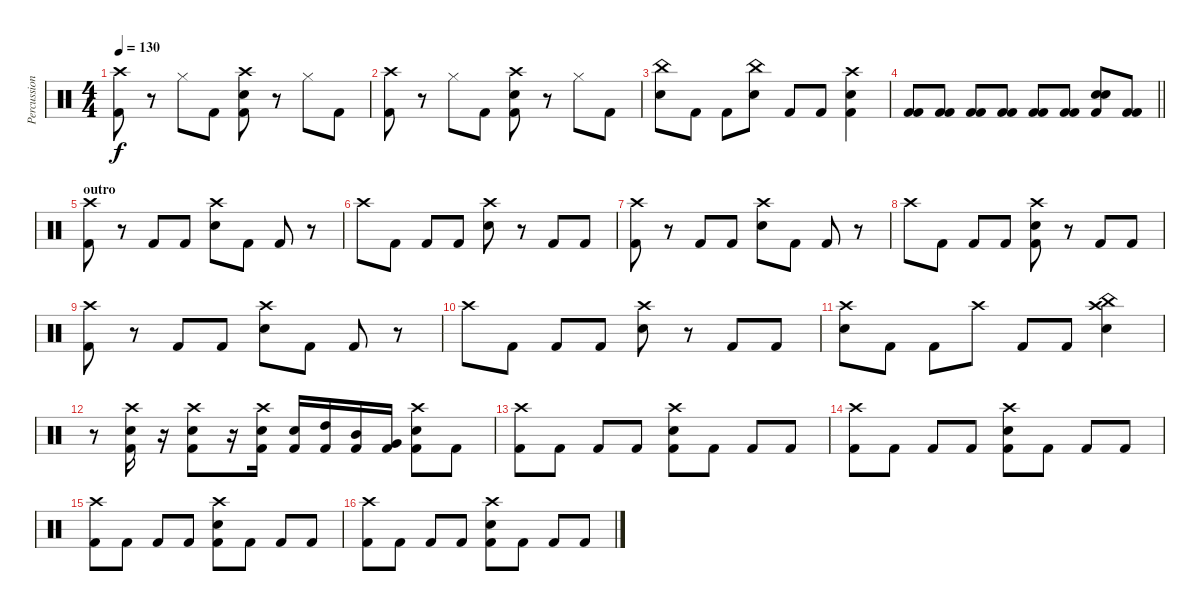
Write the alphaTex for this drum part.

\track ("Percussion" "Percussion") {instrument percussion}
\staff {score}
\articulation defaults
\ts (4 4)
\tempo 130
\clef neutral
\ks c
("Crash high (hit)" "Kick (hit) 2").8{dy f} r.8 "Hi-Hat (closed)".8 "Kick (hit) 2".8 ("Crash high (hit)" "Electric Snare (hit)" "Kick (hit) 2").8 r.8 "Hi-Hat (closed)".8 "Kick (hit) 2".8 |
("Crash high (hit)" "Kick (hit) 2").8 r.8 "Hi-Hat (closed)".8 "Kick (hit) 2".8 ("Crash high (hit)" "Electric Snare (hit)" "Kick (hit) 2").8 r.8 "Hi-Hat (closed)".8 "Kick (hit) 2".8 |
("China (hit)" "Electric Snare (hit)").8 "Kick (hit) 2".8 "Kick (hit) 2".8 ("China (hit)" "Electric Snare (hit)").8 "Kick (hit) 2".8 "Kick (hit) 2".8 ("Crash high (hit)" "Electric Snare (hit)" "Kick (hit) 2").4 |
\barLineRight lightlight
("Kick (hit) 2" "Kick (hit) 2").8 ("Kick (hit) 2" "Kick (hit) 2").8 ("Kick (hit) 2" "Kick (hit) 2").8 ("Kick (hit) 2" "Kick (hit) 2").8 ("Kick (hit) 2" "Kick (hit) 2").8 ("Kick (hit) 2" "Kick (hit) 2").8 ("Electric Snare (hit)" "Electric Snare (hit)" "Kick (hit) 2").8 ("Kick (hit) 2" "Kick (hit) 2").8 |
\section ("" "outro")
("Crash high (hit)" "Kick (hit) 2").8 r.8 "Kick (hit) 2".8 "Kick (hit) 2".8 ("Crash high (hit)" "Electric Snare (hit)").8 "Kick (hit) 2".8 "Kick (hit) 2".8 r.8 |
"Crash high (hit)".8 "Kick (hit) 2".8 "Kick (hit) 2".8 "Kick (hit) 2".8 ("Crash high (hit)" "Electric Snare (hit)").8 r.8 "Kick (hit) 2".8 "Kick (hit) 2".8 |
("Crash high (hit)" "Kick (hit) 2").8 r.8 "Kick (hit) 2".8 "Kick (hit) 2".8 ("Crash high (hit)" "Electric Snare (hit)").8 "Kick (hit) 2".8 "Kick (hit) 2".8 r.8 |
"Crash high (hit)".8 "Kick (hit) 2".8 "Kick (hit) 2".8 "Kick (hit) 2".8 ("Crash high (hit)" "Electric Snare (hit)" "Kick (hit) 2").8 r.8 "Kick (hit) 2".8 "Kick (hit) 2".8 |
("Crash high (hit)" "Kick (hit) 2").8 r.8 "Kick (hit) 2".8 "Kick (hit) 2".8 ("Crash high (hit)" "Electric Snare (hit)").8 "Kick (hit) 2".8 "Kick (hit) 2".8 r.8 |
"Crash high (hit)".8 "Kick (hit) 2".8 "Kick (hit) 2".8 "Kick (hit) 2".8 ("Crash high (hit)" "Electric Snare (hit)").8 r.8 "Kick (hit) 2".8 "Kick (hit) 2".8 |
("Crash high (hit)" "Electric Snare (hit)").8 "Kick (hit) 2".8 "Kick (hit) 2".8 "Crash high (hit)".8 "Kick (hit) 2".8 "Kick (hit) 2".8 ("China (hit)" "Crash high (hit)" "Electric Snare (hit)").4 |
r.8 ("Crash high (hit)" "Electric Snare (hit)" "Kick (hit) 2").16 r.16 ("Crash high (hit)" "Electric Snare (hit)" "Kick (hit) 2").8 r.16 ("Crash high (hit)" "Electric Snare (hit)" "Kick (hit) 2").16 ("Electric Snare (hit)" "Kick (hit) 2").16 ("High Tom (hit)" "Kick (hit) 2").16 ("Mid Tom (hit)" "Kick (hit) 2").16 ("Very Low Tom (hit)" "Kick (hit) 2").16 ("Crash high (hit)" "Electric Snare (hit)" "Kick (hit) 2").8 "Kick (hit) 2".8 |
("Crash high (hit)" "Kick (hit) 2").8 "Kick (hit) 2".8 "Kick (hit) 2".8 "Kick (hit) 2".8 ("Crash high (hit)" "Electric Snare (hit)" "Kick (hit) 2").8 "Kick (hit) 2".8 "Kick (hit) 2".8 "Kick (hit) 2".8 |
("Crash high (hit)" "Kick (hit) 2").8 "Kick (hit) 2".8 "Kick (hit) 2".8 "Kick (hit) 2".8 ("Crash high (hit)" "Electric Snare (hit)" "Kick (hit) 2").8 "Kick (hit) 2".8 "Kick (hit) 2".8 "Kick (hit) 2".8 |
("Crash high (hit)" "Kick (hit) 2").8 "Kick (hit) 2".8 "Kick (hit) 2".8 "Kick (hit) 2".8 ("Crash high (hit)" "Electric Snare (hit)" "Kick (hit) 2").8 "Kick (hit) 2".8 "Kick (hit) 2".8 "Kick (hit) 2".8 |
("Crash high (hit)" "Kick (hit) 2").8 "Kick (hit) 2".8 "Kick (hit) 2".8 "Kick (hit) 2".8 ("Crash high (hit)" "Electric Snare (hit)" "Kick (hit) 2").8 "Kick (hit) 2".8 "Kick (hit) 2".8 "Kick (hit) 2".8
